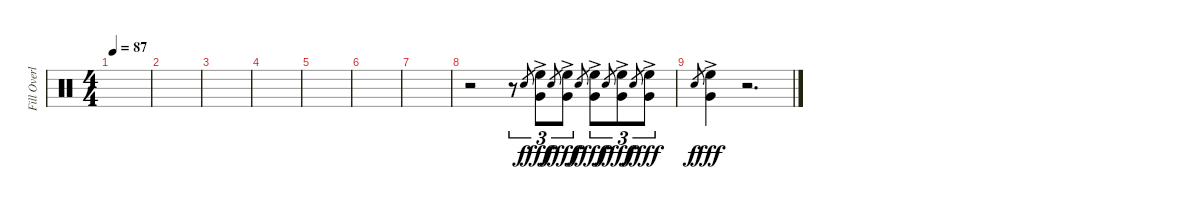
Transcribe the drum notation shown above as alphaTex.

\track ("Fill Overlay" "Fill Overl") {instrument percussion}
\staff {score}
\articulation defaults
\ts (4 4)
\tempo 87
\clef neutral
\ks c
|
|
|
|
|
|
|
r.2 r.8{tu (3 2)} "Snare (hit)".8{gr} ("High Floor Tom (hit)"{ac} "Very Low Tom (hit)").8{tu (3 2) dy fff} "Snare (hit)".8{gr dy f} ("High Floor Tom (hit)"{ac} "Very Low Tom (hit)").8{tu (3 2) dy fff} "Snare (hit)".8{gr dy f} ("High Floor Tom (hit)"{ac} "Very Low Tom (hit)").8{tu (3 2) dy fff} "Snare (hit)".8{gr dy f} ("High Floor Tom (hit)"{ac} "Very Low Tom (hit)").8{tu (3 2) dy fff} "Snare (hit)".8{gr dy f} ("High Floor Tom (hit)"{ac} "Very Low Tom (hit)").8{tu (3 2) dy fff} |
"Snare (hit)".8{gr dy f} ("High Floor Tom (hit)"{ac} "Very Low Tom (hit)").4{dy fff} r.2{d}
